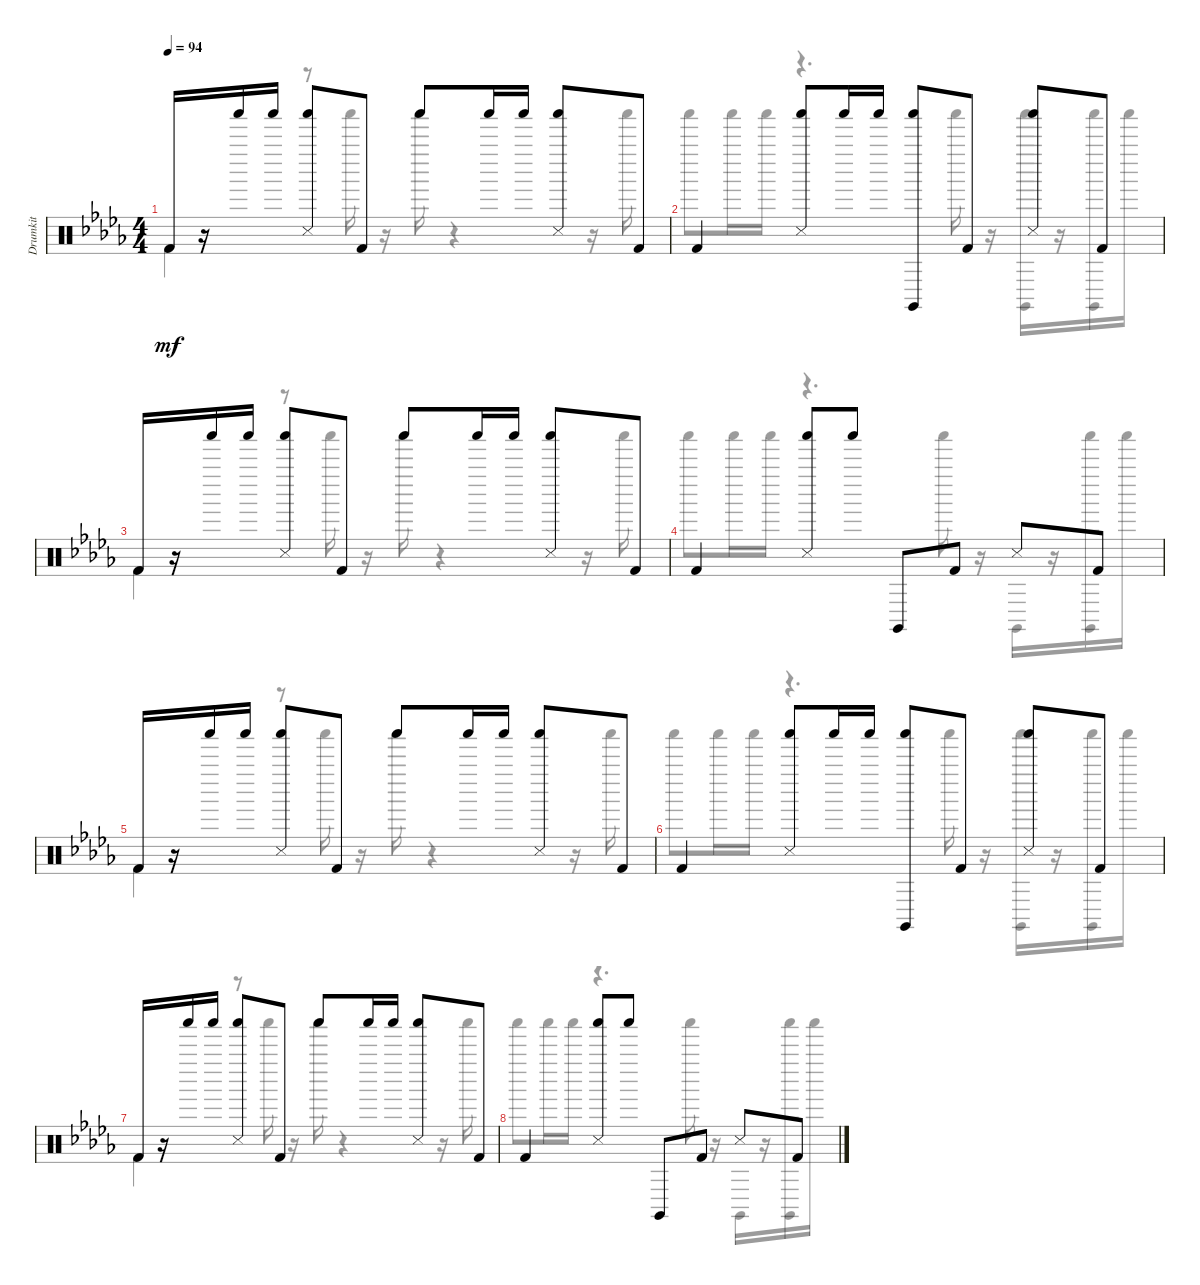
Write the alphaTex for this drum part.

\track ("Drumkit" "Drumkit") {instrument percussion}
\staff {score}
\articulation defaults
\voice
\ts (4 4)
\tempo 94
\clef neutral
\ks bbminor "Kick (hit) 2".16{dy mf}
r.16 "Shaker (hit)".16 "Shaker (hit)".16 ("Snare (side stick) 3" "Shaker (hit)").8 "Kick (hit) 2".8 "Shaker (hit)".8 "Shaker (hit)".16 "Shaker (hit)".16 ("Snare (side stick) 3" "Shaker (hit)").8 "Kick (hit) 2".8 |
"Kick (hit) 2".4 ("Shaker (hit)" "Snare (side stick) 3").8 "Shaker (hit)".16 "Shaker (hit)".16 ("Claves (hit)" "Shaker (hit)").8 "Kick (hit) 2".8 ("Snare (side stick) 3" "Shaker (hit)").8 "Kick (hit) 2".8 |
"Kick (hit) 2".16 r.16 "Shaker (hit)".16 "Shaker (hit)".16 ("Snare (side stick) 3" "Shaker (hit)").8 "Kick (hit) 2".8 "Shaker (hit)".8 "Shaker (hit)".16 "Shaker (hit)".16 ("Shaker (hit)" "Snare (side stick) 3").8 "Kick (hit) 2".8 |
"Kick (hit) 2".4 ("Snare (side stick) 3" "Shaker (hit)").8 "Shaker (hit)".8 "Claves (hit)".8 "Kick (hit) 2".8 "Snare (side stick) 3".8 "Kick (hit) 2".8 |
"Kick (hit) 2".16 r.16 "Shaker (hit)".16 "Shaker (hit)".16 ("Snare (side stick) 3" "Shaker (hit)").8 "Kick (hit) 2".8 "Shaker (hit)".8 "Shaker (hit)".16 "Shaker (hit)".16 ("Snare (side stick) 3" "Shaker (hit)").8 "Kick (hit) 2".8 |
"Kick (hit) 2".4 ("Snare (side stick) 3" "Shaker (hit)").8 "Shaker (hit)".16 "Shaker (hit)".16 ("Shaker (hit)" "Claves (hit)").8 "Kick (hit) 2".8 ("Snare (side stick) 3" "Shaker (hit)").8 "Kick (hit) 2".8 |
"Kick (hit) 2".16 r.16 "Shaker (hit)".16 "Shaker (hit)".16 ("Shaker (hit)" "Snare (side stick) 3").8 "Kick (hit) 2".8 "Shaker (hit)".8 "Shaker (hit)".16 "Shaker (hit)".16 ("Snare (side stick) 3" "Shaker (hit)").8 "Kick (hit) 2".8 |
"Kick (hit) 2".4 ("Shaker (hit)" "Snare (side stick) 3").8 "Shaker (hit)".8 "Claves (hit)".8 "Kick (hit) 2".8 "Snare (side stick) 3".8 "Kick (hit) 2".8
\voice
\clef neutral
\ottava regular
\simile none
\ks bbminor "Kick (hit) 2".4{dy mf}
r.8 "Shaker (hit)".16 r.16 "Shaker (hit)".16 r.4 r.16 "Shaker (hit)".16 |
"Shaker (hit)".8 "Shaker (hit)".16 "Shaker (hit)".16 r.4{d} "Shaker (hit)".16 r.16 ("Claves (hit)" "Shaker (hit)").16 r.16 ("Claves (hit)" "Shaker (hit)").16 "Shaker (hit)".16 |
"Kick (hit) 2".4 r.8 "Shaker (hit)".16 r.16 "Shaker (hit)".16 r.4 r.16 "Shaker (hit)".16 |
"Shaker (hit)".8 "Shaker (hit)".16 "Shaker (hit)".16 r.4{d} "Shaker (hit)".16 r.16 "Claves (hit)".16 r.16 ("Claves (hit)" "Shaker (hit)").16 "Shaker (hit)".16 |
"Kick (hit) 2".4 r.8 "Shaker (hit)".16 r.16 "Shaker (hit)".16 r.4 r.16 "Shaker (hit)".16 |
"Shaker (hit)".8 "Shaker (hit)".16 "Shaker (hit)".16 r.4{d} "Shaker (hit)".16 r.16 ("Claves (hit)" "Shaker (hit)").16 r.16 ("Claves (hit)" "Shaker (hit)").16 "Shaker (hit)".16 |
"Kick (hit) 2".4 r.8 "Shaker (hit)".16 r.16 "Shaker (hit)".16 r.4 r.16 "Shaker (hit)".16 |
"Shaker (hit)".8 "Shaker (hit)".16 "Shaker (hit)".16 r.4{d} "Shaker (hit)".16 r.16 "Claves (hit)".16 r.16 ("Claves (hit)" "Shaker (hit)").16 "Shaker (hit)".16
